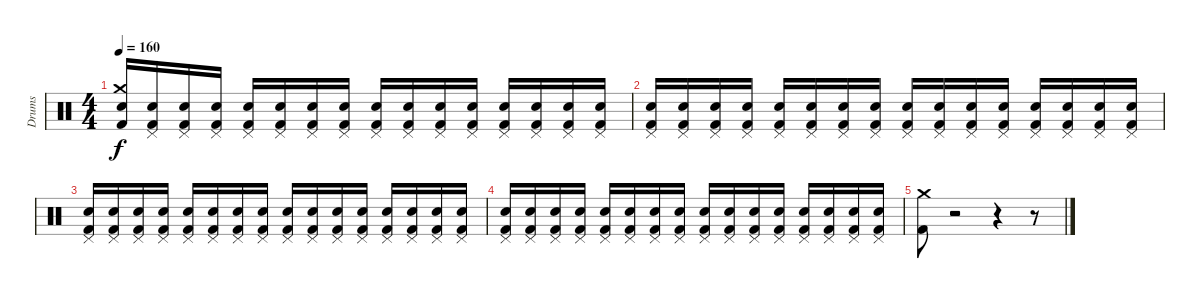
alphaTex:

\track ("Drums" "Drums") {instrument percussion}
\staff {score}
\articulation defaults
\ts (4 4)
\tempo 160
\clef neutral
\ks c
("Electric Snare (hit)" "Crash medium (hit)" "Kick (hit) 2").16{dy f} ("Pedal Hi-Hat (hit)" "Kick (hit) 2" "Electric Snare (hit)").16 ("Pedal Hi-Hat (hit)" "Kick (hit) 2" "Electric Snare (hit)").16 ("Pedal Hi-Hat (hit)" "Kick (hit) 2" "Electric Snare (hit)").16 ("Pedal Hi-Hat (hit)" "Kick (hit) 2" "Electric Snare (hit)").16 ("Pedal Hi-Hat (hit)" "Kick (hit) 2" "Electric Snare (hit)").16 ("Pedal Hi-Hat (hit)" "Kick (hit) 2" "Electric Snare (hit)").16 ("Pedal Hi-Hat (hit)" "Kick (hit) 2" "Electric Snare (hit)").16 ("Pedal Hi-Hat (hit)" "Kick (hit) 2" "Electric Snare (hit)").16 ("Pedal Hi-Hat (hit)" "Kick (hit) 2" "Electric Snare (hit)").16 ("Pedal Hi-Hat (hit)" "Kick (hit) 2" "Electric Snare (hit)").16 ("Pedal Hi-Hat (hit)" "Kick (hit) 2" "Electric Snare (hit)").16 ("Pedal Hi-Hat (hit)" "Kick (hit) 2" "Electric Snare (hit)").16 ("Pedal Hi-Hat (hit)" "Kick (hit) 2" "Electric Snare (hit)").16 ("Pedal Hi-Hat (hit)" "Kick (hit) 2" "Electric Snare (hit)").16 ("Pedal Hi-Hat (hit)" "Kick (hit) 2" "Electric Snare (hit)").16 |
("Electric Snare (hit)" "Kick (hit) 2" "Pedal Hi-Hat (hit)").16 ("Pedal Hi-Hat (hit)" "Kick (hit) 2" "Electric Snare (hit)").16 ("Pedal Hi-Hat (hit)" "Kick (hit) 2" "Electric Snare (hit)").16 ("Pedal Hi-Hat (hit)" "Kick (hit) 2" "Electric Snare (hit)").16 ("Pedal Hi-Hat (hit)" "Kick (hit) 2" "Electric Snare (hit)").16 ("Pedal Hi-Hat (hit)" "Kick (hit) 2" "Electric Snare (hit)").16 ("Pedal Hi-Hat (hit)" "Kick (hit) 2" "Electric Snare (hit)").16 ("Pedal Hi-Hat (hit)" "Kick (hit) 2" "Electric Snare (hit)").16 ("Pedal Hi-Hat (hit)" "Kick (hit) 2" "Electric Snare (hit)").16 ("Pedal Hi-Hat (hit)" "Kick (hit) 2" "Electric Snare (hit)").16 ("Pedal Hi-Hat (hit)" "Kick (hit) 2" "Electric Snare (hit)").16 ("Pedal Hi-Hat (hit)" "Kick (hit) 2" "Electric Snare (hit)").16 ("Pedal Hi-Hat (hit)" "Kick (hit) 2" "Electric Snare (hit)").16 ("Pedal Hi-Hat (hit)" "Kick (hit) 2" "Electric Snare (hit)").16 ("Pedal Hi-Hat (hit)" "Kick (hit) 2" "Electric Snare (hit)").16 ("Pedal Hi-Hat (hit)" "Kick (hit) 2" "Electric Snare (hit)").16 |
("Pedal Hi-Hat (hit)" "Electric Snare (hit)" "Kick (hit) 2").16 ("Pedal Hi-Hat (hit)" "Kick (hit) 2" "Electric Snare (hit)").16 ("Pedal Hi-Hat (hit)" "Kick (hit) 2" "Electric Snare (hit)").16 ("Pedal Hi-Hat (hit)" "Kick (hit) 2" "Electric Snare (hit)").16 ("Pedal Hi-Hat (hit)" "Kick (hit) 2" "Electric Snare (hit)").16 ("Pedal Hi-Hat (hit)" "Kick (hit) 2" "Electric Snare (hit)").16 ("Pedal Hi-Hat (hit)" "Kick (hit) 2" "Electric Snare (hit)").16 ("Pedal Hi-Hat (hit)" "Kick (hit) 2" "Electric Snare (hit)").16 ("Pedal Hi-Hat (hit)" "Kick (hit) 2" "Electric Snare (hit)").16 ("Pedal Hi-Hat (hit)" "Kick (hit) 2" "Electric Snare (hit)").16 ("Pedal Hi-Hat (hit)" "Kick (hit) 2" "Electric Snare (hit)").16 ("Pedal Hi-Hat (hit)" "Kick (hit) 2" "Electric Snare (hit)").16 ("Pedal Hi-Hat (hit)" "Kick (hit) 2" "Electric Snare (hit)").16 ("Pedal Hi-Hat (hit)" "Kick (hit) 2" "Electric Snare (hit)").16 ("Pedal Hi-Hat (hit)" "Kick (hit) 2" "Electric Snare (hit)").16 ("Pedal Hi-Hat (hit)" "Kick (hit) 2" "Electric Snare (hit)").16 |
("Electric Snare (hit)" "Kick (hit) 2" "Pedal Hi-Hat (hit)").16 ("Pedal Hi-Hat (hit)" "Kick (hit) 2" "Electric Snare (hit)").16 ("Pedal Hi-Hat (hit)" "Kick (hit) 2" "Electric Snare (hit)").16 ("Pedal Hi-Hat (hit)" "Kick (hit) 2" "Electric Snare (hit)").16 ("Pedal Hi-Hat (hit)" "Kick (hit) 2" "Electric Snare (hit)").16 ("Pedal Hi-Hat (hit)" "Kick (hit) 2" "Electric Snare (hit)").16 ("Pedal Hi-Hat (hit)" "Kick (hit) 2" "Electric Snare (hit)").16 ("Pedal Hi-Hat (hit)" "Kick (hit) 2" "Electric Snare (hit)").16 ("Pedal Hi-Hat (hit)" "Kick (hit) 2" "Electric Snare (hit)").16 ("Pedal Hi-Hat (hit)" "Kick (hit) 2" "Electric Snare (hit)").16 ("Pedal Hi-Hat (hit)" "Kick (hit) 2" "Electric Snare (hit)").16 ("Pedal Hi-Hat (hit)" "Kick (hit) 2" "Electric Snare (hit)").16 ("Pedal Hi-Hat (hit)" "Kick (hit) 2" "Electric Snare (hit)").16 ("Pedal Hi-Hat (hit)" "Kick (hit) 2" "Electric Snare (hit)").16 ("Pedal Hi-Hat (hit)" "Kick (hit) 2" "Electric Snare (hit)").16 ("Pedal Hi-Hat (hit)" "Kick (hit) 2" "Electric Snare (hit)").16 |
("Crash medium (hit)" "Kick (hit) 2").8 r.2 r.4 r.8
